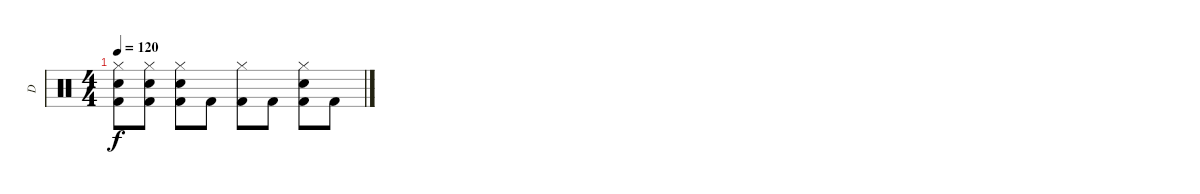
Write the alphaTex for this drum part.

\track ("D" "D") {instrument percussion}
\staff {score}
\articulation defaults
\ts (4 4)
\tempo 120
\clef neutral
\ks c
("Hi-Hat (closed)" "Electric Snare (hit)" "Kick (hit) 2").8{dy f} ("Hi-Hat (closed)" "Electric Snare (hit)" "Kick (hit) 2").8 ("Hi-Hat (closed)" "Electric Snare (hit)" "Kick (hit) 2").8 "Kick (hit) 2".8 ("Hi-Hat (closed)" "Kick (hit) 2").8 "Kick (hit) 2".8 ("Hi-Hat (closed)" "Electric Snare (hit)" "Kick (hit) 2").8 "Kick (hit) 2".8
